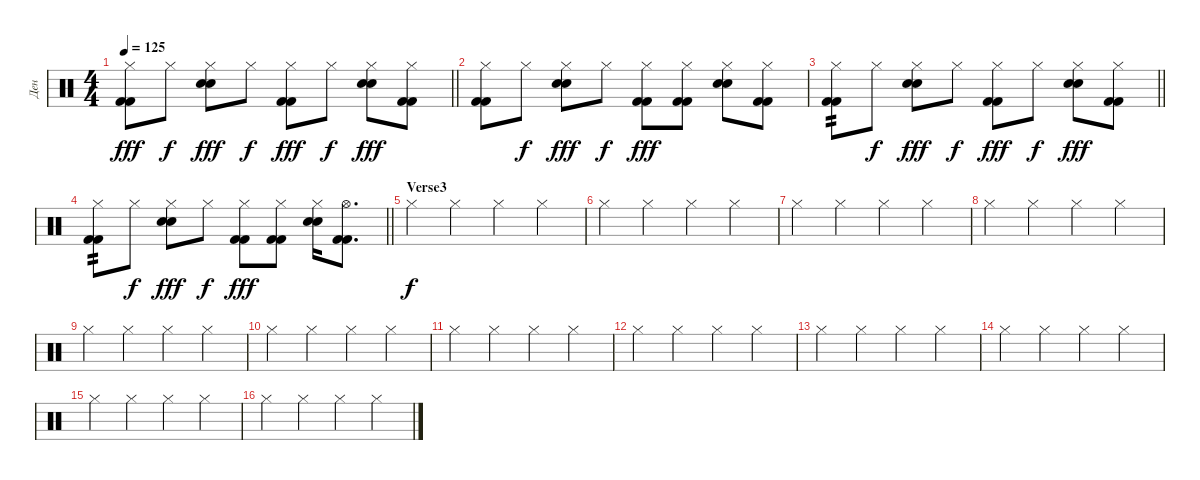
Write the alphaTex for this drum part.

\track ("Ден" "Ден") {instrument percussion}
\staff {score}
\articulation defaults
\ts (4 4)
\tempo 125
\clef neutral
\barLineRight lightlight
\ks c
("Hi-Hat (closed)" "Kick (hit) 2" "Kick (hit) 2").8{dy fff} "Hi-Hat (closed)".8{dy f} ("Hi-Hat (closed)" "Electric Snare (hit)" "Electric Snare (hit)").8{dy fff} "Hi-Hat (closed)".8{dy f} ("Hi-Hat (closed)" "Kick (hit) 2" "Kick (hit) 2").8{dy fff} "Hi-Hat (closed)".8{dy f} ("Hi-Hat (closed)" "Electric Snare (hit)" "Electric Snare (hit)").8{dy fff} ("Hi-Hat (closed)" "Kick (hit) 2" "Kick (hit) 2").8 |
("Hi-Hat (closed)" "Kick (hit) 2" "Kick (hit) 2").8 "Hi-Hat (closed)".8{dy f} ("Hi-Hat (closed)" "Electric Snare (hit)" "Electric Snare (hit)").8{dy fff} "Hi-Hat (closed)".8{dy f} ("Hi-Hat (closed)" "Kick (hit) 2" "Kick (hit) 2").8{dy fff} ("Hi-Hat (closed)" "Kick (hit) 2" "Kick (hit) 2").8 ("Hi-Hat (closed)" "Electric Snare (hit)" "Electric Snare (hit)").8 ("Hi-Hat (closed)" "Kick (hit) 2" "Kick (hit) 2").8 |
\barLineRight lightlight
("Hi-Hat (closed)" "Kick (hit) 2" "Kick (hit) 2").8{tp 2} "Hi-Hat (closed)".8{dy f} ("Hi-Hat (closed)" "Electric Snare (hit)" "Electric Snare (hit)").8{dy fff} "Hi-Hat (closed)".8{dy f} ("Hi-Hat (closed)" "Kick (hit) 2" "Kick (hit) 2").8{dy fff} "Hi-Hat (closed)".8{dy f} ("Hi-Hat (closed)" "Electric Snare (hit)" "Electric Snare (hit)").8{dy fff} ("Hi-Hat (closed)" "Kick (hit) 2" "Kick (hit) 2").8 |
\barLineRight lightlight
("Hi-Hat (closed)" "Kick (hit) 2" "Kick (hit) 2").8{tp 2} "Hi-Hat (closed)".8{dy f} ("Hi-Hat (closed)" "Electric Snare (hit)" "Electric Snare (hit)").8{dy fff} "Hi-Hat (closed)".8{dy f} ("Hi-Hat (closed)" "Kick (hit) 2" "Kick (hit) 2").8{dy fff} ("Hi-Hat (closed)" "Kick (hit) 2" "Kick (hit) 2").8 ("Hi-Hat (closed)" "Electric Snare (hit)" "Electric Snare (hit)").16 ("Hi-Hat (open)" "Kick (hit) 2" "Kick (hit) 2").8{d} |
\section ("" "Verse3")
"Hi-Hat (closed)".4{dy f} "Hi-Hat (closed)".4 "Hi-Hat (closed)".4 "Hi-Hat (closed)".4 |
"Hi-Hat (closed)".4 "Hi-Hat (closed)".4 "Hi-Hat (closed)".4 "Hi-Hat (closed)".4 |
"Hi-Hat (closed)".4 "Hi-Hat (closed)".4 "Hi-Hat (closed)".4 "Hi-Hat (closed)".4 |
"Hi-Hat (closed)".4 "Hi-Hat (closed)".4 "Hi-Hat (closed)".4 "Hi-Hat (closed)".4 |
"Hi-Hat (closed)".4 "Hi-Hat (closed)".4 "Hi-Hat (closed)".4 "Hi-Hat (closed)".4 |
"Hi-Hat (closed)".4 "Hi-Hat (closed)".4 "Hi-Hat (closed)".4 "Hi-Hat (closed)".4 |
"Hi-Hat (closed)".4 "Hi-Hat (closed)".4 "Hi-Hat (closed)".4 "Hi-Hat (closed)".4 |
"Hi-Hat (closed)".4 "Hi-Hat (closed)".4 "Hi-Hat (closed)".4 "Hi-Hat (closed)".4 |
"Hi-Hat (closed)".4 "Hi-Hat (closed)".4 "Hi-Hat (closed)".4 "Hi-Hat (closed)".4 |
"Hi-Hat (closed)".4 "Hi-Hat (closed)".4 "Hi-Hat (closed)".4 "Hi-Hat (closed)".4 |
"Hi-Hat (closed)".4 "Hi-Hat (closed)".4 "Hi-Hat (closed)".4 "Hi-Hat (closed)".4 |
"Hi-Hat (closed)".4 "Hi-Hat (closed)".4 "Hi-Hat (closed)".4 "Hi-Hat (closed)".4
